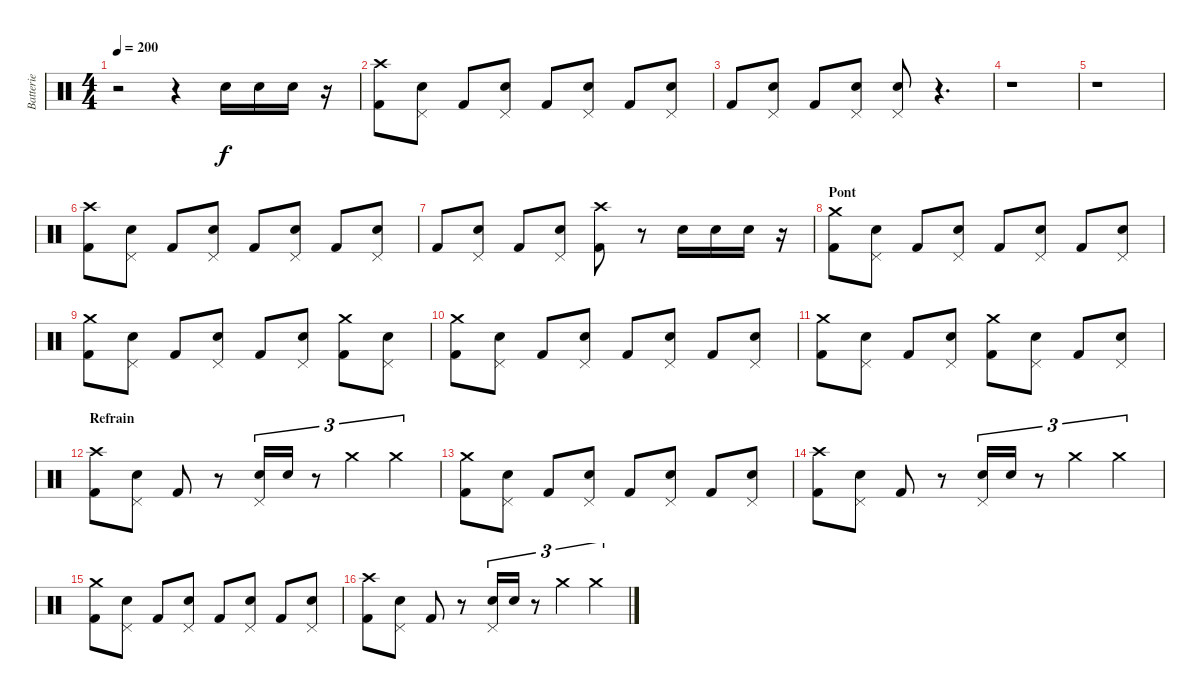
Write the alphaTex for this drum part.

\track ("Batterie" "Batterie") {instrument percussion}
\staff {score}
\articulation defaults
\ts (4 4)
\tempo 200
\clef neutral
\ks c
r.2{dy f} r.4 "Snare (hit) 2".16 "Snare (hit) 2".16 "Snare (hit) 2".16 r.16 |
("Crash high (hit)" "Kick (hit) 2").8 ("Pedal Hi-Hat (hit)" "Snare (hit) 2").8 "Kick (hit) 2".8 ("Pedal Hi-Hat (hit)" "Snare (hit) 2").8 "Kick (hit) 2".8 ("Pedal Hi-Hat (hit)" "Snare (hit) 2").8 "Kick (hit) 2".8 ("Pedal Hi-Hat (hit)" "Snare (hit) 2").8 |
"Kick (hit) 2".8 ("Pedal Hi-Hat (hit)" "Snare (hit) 2").8 "Kick (hit) 2".8 ("Pedal Hi-Hat (hit)" "Snare (hit) 2").8 ("Pedal Hi-Hat (hit)" "Snare (hit) 2").8 r.4{d} |
r.1 |
r.1 |
("Crash high (hit)" "Kick (hit) 2").8 ("Pedal Hi-Hat (hit)" "Snare (hit) 2").8 "Kick (hit) 2".8 ("Pedal Hi-Hat (hit)" "Snare (hit) 2").8 "Kick (hit) 2".8 ("Pedal Hi-Hat (hit)" "Snare (hit) 2").8 "Kick (hit) 2".8 ("Pedal Hi-Hat (hit)" "Snare (hit) 2").8 |
"Kick (hit) 2".8 ("Pedal Hi-Hat (hit)" "Snare (hit) 2").8 "Kick (hit) 2".8 ("Pedal Hi-Hat (hit)" "Snare (hit) 2").8 ("Crash high (hit)" "Kick (hit) 2").8 r.8 "Snare (hit) 2".16 "Snare (hit) 2".16 "Snare (hit) 2".16 r.16 |
\section ("" "Pont")
("Crash medium (hit)" "Kick (hit) 2").8 ("Pedal Hi-Hat (hit)" "Snare (hit) 2").8 "Kick (hit) 2".8 ("Pedal Hi-Hat (hit)" "Snare (hit) 2").8 "Kick (hit) 2".8 ("Pedal Hi-Hat (hit)" "Snare (hit) 2").8 "Kick (hit) 2".8 ("Pedal Hi-Hat (hit)" "Snare (hit) 2").8 |
("Crash medium (hit)" "Kick (hit) 2").8 ("Pedal Hi-Hat (hit)" "Snare (hit) 2").8 "Kick (hit) 2".8 ("Pedal Hi-Hat (hit)" "Snare (hit) 2").8 "Kick (hit) 2".8 ("Pedal Hi-Hat (hit)" "Snare (hit) 2").8 ("Crash medium (hit)" "Kick (hit) 2").8 ("Pedal Hi-Hat (hit)" "Snare (hit) 2").8 |
("Crash medium (hit)" "Kick (hit) 2").8 ("Pedal Hi-Hat (hit)" "Snare (hit) 2").8 "Kick (hit) 2".8 ("Pedal Hi-Hat (hit)" "Snare (hit) 2").8 "Kick (hit) 2".8 ("Pedal Hi-Hat (hit)" "Snare (hit) 2").8 "Kick (hit) 2".8 ("Pedal Hi-Hat (hit)" "Snare (hit) 2").8 |
("Crash medium (hit)" "Kick (hit) 2").8 ("Pedal Hi-Hat (hit)" "Snare (hit) 2").8 "Kick (hit) 2".8 ("Pedal Hi-Hat (hit)" "Snare (hit) 2").8 ("Crash medium (hit)" "Kick (hit) 2").8 ("Pedal Hi-Hat (hit)" "Snare (hit) 2").8 "Kick (hit) 2".8 ("Pedal Hi-Hat (hit)" "Snare (hit) 2").8 |
\section ("" "Refrain")
("Crash high (hit)" "Kick (hit) 2").8 ("Pedal Hi-Hat (hit)" "Snare (hit) 2").8 "Kick (hit) 2".8 r.8 ("Pedal Hi-Hat (hit)" "Snare (hit) 2").16{tu (3 2)} "Snare (hit) 2".16{tu (3 2)} r.8{tu (3 2)} "Crash medium (hit)".4{tu (3 2)} "Crash medium (hit)".4{tu (3 2)} |
("Crash medium (hit)" "Kick (hit) 2").8 ("Pedal Hi-Hat (hit)" "Snare (hit) 2").8 "Kick (hit) 2".8 ("Pedal Hi-Hat (hit)" "Snare (hit) 2").8 "Kick (hit) 2".8 ("Pedal Hi-Hat (hit)" "Snare (hit) 2").8 "Kick (hit) 2".8 ("Pedal Hi-Hat (hit)" "Snare (hit) 2").8 |
("Crash high (hit)" "Kick (hit) 2").8 ("Pedal Hi-Hat (hit)" "Snare (hit) 2").8 "Kick (hit) 2".8 r.8 ("Pedal Hi-Hat (hit)" "Snare (hit) 2").16{tu (3 2)} "Snare (hit) 2".16{tu (3 2)} r.8{tu (3 2)} "Crash medium (hit)".4{tu (3 2)} "Crash medium (hit)".4{tu (3 2)} |
("Crash medium (hit)" "Kick (hit) 2").8 ("Pedal Hi-Hat (hit)" "Snare (hit) 2").8 "Kick (hit) 2".8 ("Pedal Hi-Hat (hit)" "Snare (hit) 2").8 "Kick (hit) 2".8 ("Pedal Hi-Hat (hit)" "Snare (hit) 2").8 "Kick (hit) 2".8 ("Pedal Hi-Hat (hit)" "Snare (hit) 2").8 |
("Crash high (hit)" "Kick (hit) 2").8 ("Pedal Hi-Hat (hit)" "Snare (hit) 2").8 "Kick (hit) 2".8 r.8 ("Pedal Hi-Hat (hit)" "Snare (hit) 2").16{tu (3 2)} "Snare (hit) 2".16{tu (3 2)} r.8{tu (3 2)} "Crash medium (hit)".4{tu (3 2)} "Crash medium (hit)".4{tu (3 2)}
